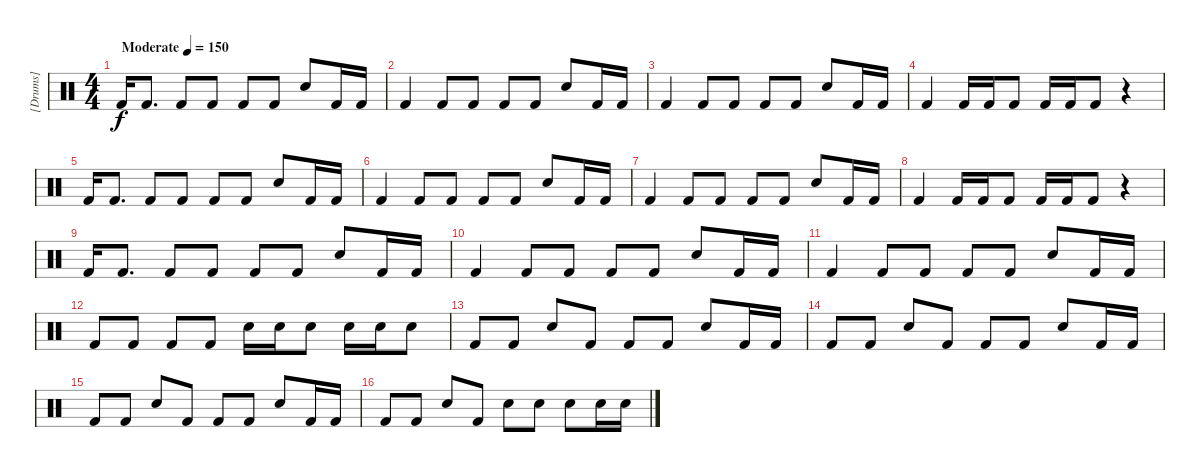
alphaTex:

\track ("[Drums]" "[Drums]") {instrument percussion}
\staff {score}
\articulation defaults
\ts (4 4)
\tempo (150 "Moderate")
\clef neutral
\ks c "Kick (hit) 2".16{dy f} "Kick (hit) 2".8{d} "Kick (hit) 2".8 "Kick (hit) 2".8 "Kick (hit) 2".8 "Kick (hit) 2".8 "Electric Snare (hit)".8 "Kick (hit) 2".16 "Kick (hit) 2".16
|
"Kick (hit) 2".4 "Kick (hit) 2".8 "Kick (hit) 2".8 "Kick (hit) 2".8 "Kick (hit) 2".8 "Electric Snare (hit)".8 "Kick (hit) 2".16 "Kick (hit) 2".16 |
"Kick (hit) 2".4 "Kick (hit) 2".8 "Kick (hit) 2".8 "Kick (hit) 2".8 "Kick (hit) 2".8 "Electric Snare (hit)".8 "Kick (hit) 2".16 "Kick (hit) 2".16 |
"Kick (hit) 2".4 "Kick (hit) 2".16 "Kick (hit) 2".16 "Kick (hit) 2".8 "Kick (hit) 2".16 "Kick (hit) 2".16 "Kick (hit) 2".8 r.4 |
"Kick (hit) 2".16 "Kick (hit) 2".8{d} "Kick (hit) 2".8 "Kick (hit) 2".8 "Kick (hit) 2".8 "Kick (hit) 2".8 "Electric Snare (hit)".8 "Kick (hit) 2".16 "Kick (hit) 2".16 |
"Kick (hit) 2".4 "Kick (hit) 2".8 "Kick (hit) 2".8 "Kick (hit) 2".8 "Kick (hit) 2".8 "Electric Snare (hit)".8 "Kick (hit) 2".16 "Kick (hit) 2".16 |
"Kick (hit) 2".4 "Kick (hit) 2".8 "Kick (hit) 2".8 "Kick (hit) 2".8 "Kick (hit) 2".8 "Electric Snare (hit)".8 "Kick (hit) 2".16 "Kick (hit) 2".16 |
"Kick (hit) 2".4 "Kick (hit) 2".16 "Kick (hit) 2".16 "Kick (hit) 2".8 "Kick (hit) 2".16 "Kick (hit) 2".16 "Kick (hit) 2".8 r.4 |
"Kick (hit) 2".16 "Kick (hit) 2".8{d} "Kick (hit) 2".8 "Kick (hit) 2".8 "Kick (hit) 2".8 "Kick (hit) 2".8 "Electric Snare (hit)".8 "Kick (hit) 2".16 "Kick (hit) 2".16 |
"Kick (hit) 2".4 "Kick (hit) 2".8 "Kick (hit) 2".8 "Kick (hit) 2".8 "Kick (hit) 2".8 "Electric Snare (hit)".8 "Kick (hit) 2".16 "Kick (hit) 2".16 |
"Kick (hit) 2".4 "Kick (hit) 2".8 "Kick (hit) 2".8 "Kick (hit) 2".8 "Kick (hit) 2".8 "Electric Snare (hit)".8 "Kick (hit) 2".16 "Kick (hit) 2".16 |
"Kick (hit) 2".8 "Kick (hit) 2".8 "Kick (hit) 2".8 "Kick (hit) 2".8 "Electric Snare (hit)".16 "Electric Snare (hit)".16 "Electric Snare (hit)".8 "Electric Snare (hit)".16 "Electric Snare (hit)".16 "Electric Snare (hit)".8 |
"Kick (hit) 2".8 "Kick (hit) 2".8 "Electric Snare (hit)".8 "Kick (hit) 2".8 "Kick (hit) 2".8 "Kick (hit) 2".8 "Electric Snare (hit)".8 "Kick (hit) 2".16 "Kick (hit) 2".16 |
"Kick (hit) 2".8 "Kick (hit) 2".8 "Electric Snare (hit)".8 "Kick (hit) 2".8 "Kick (hit) 2".8 "Kick (hit) 2".8 "Electric Snare (hit)".8 "Kick (hit) 2".16 "Kick (hit) 2".16 |
"Kick (hit) 2".8 "Kick (hit) 2".8 "Electric Snare (hit)".8 "Kick (hit) 2".8 "Kick (hit) 2".8 "Kick (hit) 2".8 "Electric Snare (hit)".8 "Kick (hit) 2".16 "Kick (hit) 2".16 |
"Kick (hit) 2".8 "Kick (hit) 2".8 "Electric Snare (hit)".8 "Kick (hit) 2".8 "Electric Snare (hit)".8 "Electric Snare (hit)".8 "Electric Snare (hit)".8 "Electric Snare (hit)".16 "Electric Snare (hit)".16
